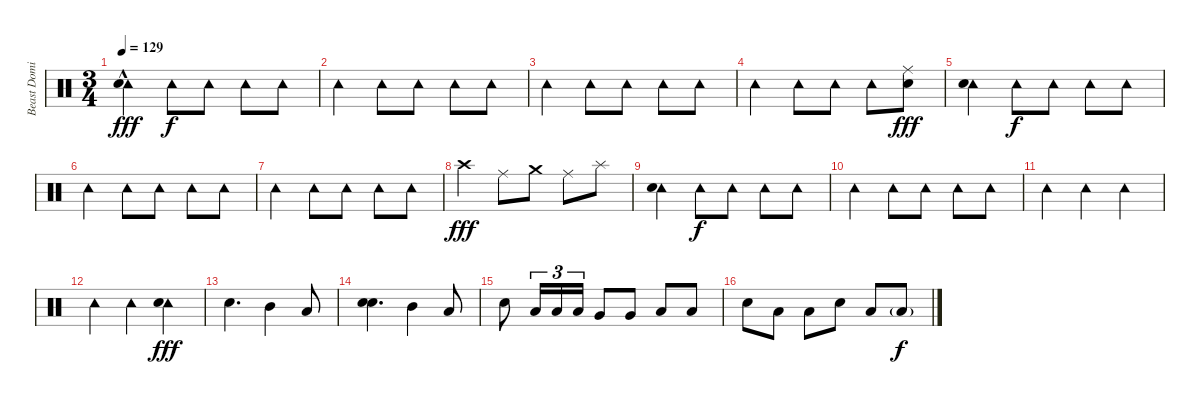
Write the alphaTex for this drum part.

\track ("Beast Dominator" "Beast Domi") {instrument percussion}
\staff
\articulation defaults
\ts (3 4)
\tempo 129
\clef neutral
\ks c
("Tambourine (hit)" "Snare (hit) 2"{hac}).4{dy fff volume 11} "Tambourine (hit)".8{dy f} "Tambourine (hit)".8 "Tambourine (hit)".8 "Tambourine (hit)".8 |
"Tambourine (hit)".4 "Tambourine (hit)".8 "Tambourine (hit)".8 "Tambourine (hit)".8 "Tambourine (hit)".8 |
"Tambourine (hit)".4 "Tambourine (hit)".8 "Tambourine (hit)".8 "Tambourine (hit)".8 "Tambourine (hit)".8 |
"Tambourine (hit)".4 "Tambourine (hit)".8 "Tambourine (hit)".8 "Tambourine (hit)".8 ("Ride (middle)" "Electric Snare (hit)").8{dy fff} |
("Tambourine (hit)" "Snare (hit) 2").4 "Tambourine (hit)".8{dy f} "Tambourine (hit)".8 "Tambourine (hit)".8 "Tambourine (hit)".8 |
"Tambourine (hit)".4 "Tambourine (hit)".8 "Tambourine (hit)".8 "Tambourine (hit)".8 "Tambourine (hit)".8 |
"Tambourine (hit)".4 "Tambourine (hit)".8 "Tambourine (hit)".8 "Tambourine (hit)".8 "Tambourine (hit)".8 |
"Crash high (hit)".4{dy fff} "Ride (middle)".8 "Crash medium (hit)".8 "Ride (middle)".8 "Splash (hit)".8 |
("Tambourine (hit)" "Snare (hit) 2").4 "Tambourine (hit)".8{dy f} "Tambourine (hit)".8 "Tambourine (hit)".8 "Tambourine (hit)".8 |
"Tambourine (hit)".4 "Tambourine (hit)".8 "Tambourine (hit)".8 "Tambourine (hit)".8 "Tambourine (hit)".8 |
"Tambourine (hit)".4 "Tambourine (hit)".4 "Tambourine (hit)".4 |
"Tambourine (hit)".4 "Tambourine (hit)".4 ("Tambourine (hit)" "Electric Snare (hit)").4{dy fff} |
"Snare (hit) 2".4{d} "Mid Tom (hit)".4 "Low Tom (hit)".8 |
("Electric Snare (hit)" "Snare (hit) 2").4{d} "Mid Tom (hit)".4 "Low Tom (hit)".8 |
"Snare (hit) 2".8 "Low Tom (hit)".16{tu (3 2)} "Low Tom (hit)".16{tu (3 2)} "Low Tom (hit)".16{tu (3 2)} "Very Low Tom (hit)".8 "Very Low Tom (hit)".8 "Low Floor Tom (hit)".8 "Low Floor Tom (hit)".8 |
"Snare (hit) 2".8 "Low Tom (hit)".8 "Low Tom (hit)".8 "Snare (hit) 2".8 "Low Tom (hit)".8 "Low Tom (hit)"{g}.8{dy f}
